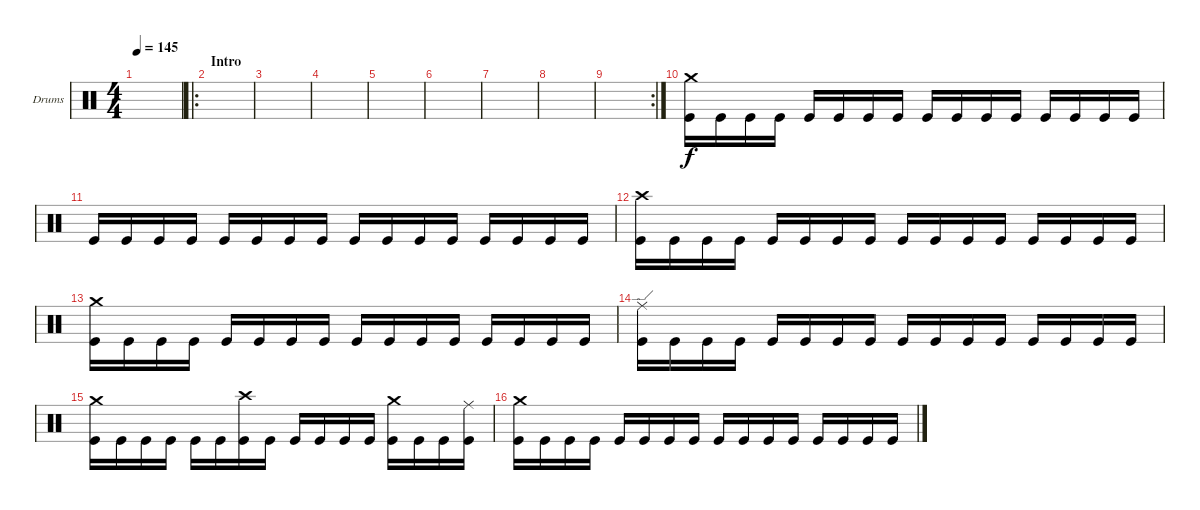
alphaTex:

\defaultSystemsLayout 4
\bracketExtendMode groupsimilarinstruments
\firstSystemTrackNameOrientation horizontal
\otherSystemsTrackNameOrientation horizontal
\track ("Drums" "Drums") {instrument percussion}
\staff {score}
\articulation defaults
\ts (4 4)
\tempo 145
\clef neutral
\ks c
|
\ro
\section ("" "Intro")
\scale
0.472222 |
\scale
0.263889 |
\scale
0.263889 |
\scale
0.333333 |
\scale
0.333333 |
\scale
0.333333 |
\scale
0.333333 |
\rc 2
\scale
0.333333 |
\scale
0.333333 ("Kick (hit)" "Crash medium (hit)").16 "Kick (hit)".16 "Kick (hit)".16 "Kick (hit)".16 "Kick (hit)".16 "Kick (hit)".16 "Kick (hit)".16 "Kick (hit)".16 "Kick (hit)".16 "Kick (hit)".16 "Kick (hit)".16 "Kick (hit)".16 "Kick (hit)".16 "Kick (hit)".16 "Kick (hit)".16 "Kick (hit)".16 |
\scale
0.333333 "Kick (hit)".16 "Kick (hit)".16 "Kick (hit)".16 "Kick (hit)".16 "Kick (hit)".16 "Kick (hit)".16 "Kick (hit)".16 "Kick (hit)".16 "Kick (hit)".16 "Kick (hit)".16 "Kick (hit)".16 "Kick (hit)".16 "Kick (hit)".16 "Kick (hit)".16 "Kick (hit)".16 "Kick (hit)".16 |
\scale
0.333333 ("Kick (hit)" "Crash high (hit)").16 "Kick (hit)".16 "Kick (hit)".16 "Kick (hit)".16 "Kick (hit)".16 "Kick (hit)".16 "Kick (hit)".16 "Kick (hit)".16 "Kick (hit)".16 "Kick (hit)".16 "Kick (hit)".16 "Kick (hit)".16 "Kick (hit)".16 "Kick (hit)".16 "Kick (hit)".16 "Kick (hit)".16 |
\scale
0.333333 ("Kick (hit)" "Crash medium (hit)").16 "Kick (hit)".16 "Kick (hit)".16 "Kick (hit)".16 "Kick (hit)".16 "Kick (hit)".16 "Kick (hit)".16 "Kick (hit)".16 "Kick (hit)".16 "Kick (hit)".16 "Kick (hit)".16 "Kick (hit)".16 "Kick (hit)".16 "Kick (hit)".16 "Kick (hit)".16 "Kick (hit)".16 |
\scale
0.333333 ("Kick (hit)" "Ride (edge)").16 "Kick (hit)".16 "Kick (hit)".16 "Kick (hit)".16 "Kick (hit)".16 "Kick (hit)".16 "Kick (hit)".16 "Kick (hit)".16 "Kick (hit)".16 "Kick (hit)".16 "Kick (hit)".16 "Kick (hit)".16 "Kick (hit)".16 "Kick (hit)".16 "Kick (hit)".16 "Kick (hit)".16 |
\scale
0.333333 ("Kick (hit)" "Crash medium (hit)").16 "Kick (hit)".16 "Kick (hit)".16 "Kick (hit)".16 "Kick (hit)".16 "Kick (hit)".16 ("Kick (hit)" "Crash high (hit)").16 "Kick (hit)".16 "Kick (hit)".16 "Kick (hit)".16 "Kick (hit)".16 "Kick (hit)".16 ("Kick (hit)" "Crash medium (hit)").16 "Kick (hit)".16 "Kick (hit)".16 ("Kick (hit)" "Ride (middle)").16 |
\scale
0.333333 ("Kick (hit)" "Crash medium (hit)").16 "Kick (hit)".16 "Kick (hit)".16 "Kick (hit)".16 "Kick (hit)".16 "Kick (hit)".16 "Kick (hit)".16 "Kick (hit)".16 "Kick (hit)".16 "Kick (hit)".16 "Kick (hit)".16 "Kick (hit)".16 "Kick (hit)".16 "Kick (hit)".16 "Kick (hit)".16 "Kick (hit)".16
